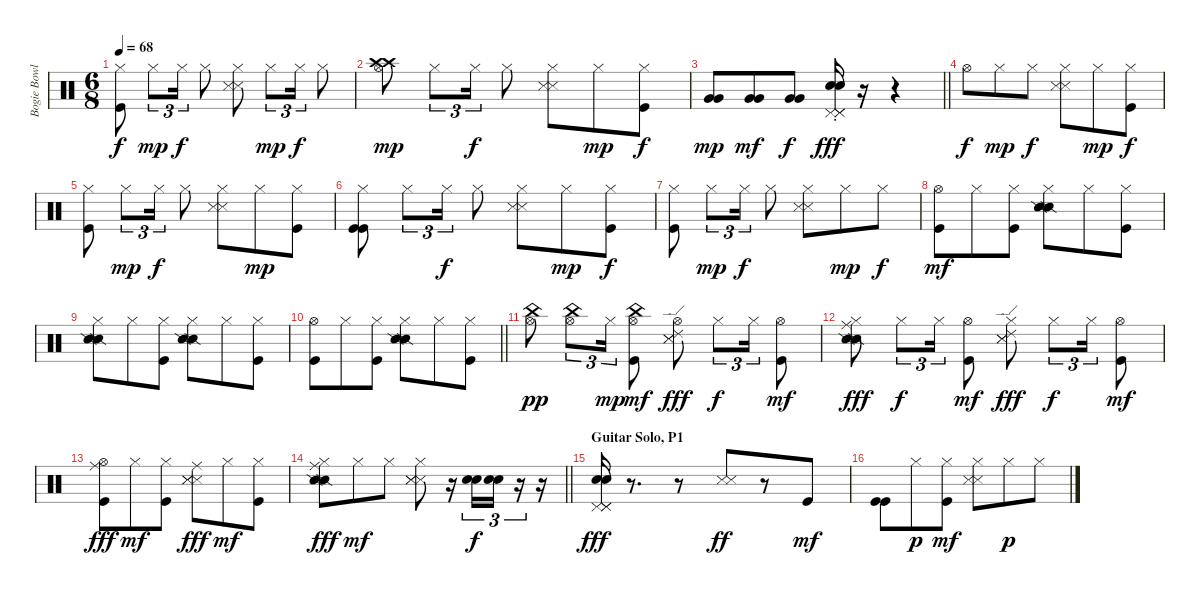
\track ("Bogie Bowles" "Bogie Bowl") {instrument percussion}
\staff {score}
\articulation defaults
\ts (6 8)
\tempo 68
\clef neutral
\ks c
("Hi-Hat (closed)" "Kick (hit)").8{dy f} "Hi-Hat (closed)".8{tu (3 2) dy mp} "Hi-Hat (closed)".16{tu (3 2) dy f} "Hi-Hat (closed)".8 ("Hi-Hat (closed)" "Snare (side stick) 3" "Snare (side stick) 3").8 "Hi-Hat (closed)".8{tu (3 2) dy mp} "Hi-Hat (closed)".16{tu (3 2) dy f} "Hi-Hat (closed)".8 |
("Hi-Hat (open)" "Crash high (hit)" "Crash high (hit)").8{dy mp} "Hi-Hat (closed)".8{tu (3 2)} "Hi-Hat (closed)".16{tu (3 2) dy f} "Hi-Hat (closed)".8 ("Hi-Hat (closed)" "Snare (side stick) 3" "Snare (side stick) 3").8 "Hi-Hat (closed)".8{dy mp} ("Hi-Hat (closed)" "Kick (hit)").8{dy f} |
\barLineRight lightlight
("Very Low Tom (hit)" "Very Low Tom (hit)").8{dy mp} ("Very Low Tom (hit)" "Very Low Tom (hit)").8{dy mf} ("Very Low Tom (hit)" "Very Low Tom (hit)").8{dy f} ("Pedal Hi-Hat (hit)"{st} "Pedal Hi-Hat (hit)"{st} "Pedal Hi-Hat (hit)"{st} "Snare (hit) 2"{st} "Snare (hit) 2"{st}).16{dy fff} r.16 r.4 |
"Hi-Hat (open)".8{dy f} "Hi-Hat (closed)".8{dy mp} "Hi-Hat (closed)".8{dy f} ("Hi-Hat (closed)" "Snare (side stick) 3" "Snare (side stick) 3").8 "Hi-Hat (closed)".8{dy mp} ("Hi-Hat (closed)" "Kick (hit)").8{dy f} |
("Hi-Hat (closed)" "Kick (hit)").8 "Hi-Hat (closed)".8{tu (3 2) dy mp} "Hi-Hat (closed)".16{tu (3 2) dy f} "Hi-Hat (closed)".8 ("Hi-Hat (closed)" "Snare (side stick) 3" "Snare (side stick) 3").8 "Hi-Hat (closed)".8{dy mp} ("Hi-Hat (closed)" "Kick (hit)").8 |
("Hi-Hat (closed)" "Kick (hit)" "Kick (hit)").8 "Hi-Hat (closed)".8{tu (3 2)} "Hi-Hat (closed)".16{tu (3 2) dy f} "Hi-Hat (closed)".8 ("Hi-Hat (closed)" "Snare (side stick) 3" "Snare (side stick) 3").8 "Hi-Hat (closed)".8{dy mp} ("Hi-Hat (closed)" "Kick (hit)").8{dy f} |
("Hi-Hat (closed)" "Kick (hit)").8 "Hi-Hat (closed)".8{tu (3 2) dy mp} "Hi-Hat (closed)".16{tu (3 2) dy f} "Hi-Hat (closed)".8 ("Hi-Hat (closed)" "Snare (side stick) 3" "Snare (side stick) 3").8 "Hi-Hat (closed)".8{dy mp} "Hi-Hat (closed)".8{dy f} |
("Hi-Hat (open)" "Kick (hit)").8{dy mf} "Hi-Hat (closed)".8 ("Hi-Hat (closed)" "Kick (hit)").8 ("Hi-Hat (closed)" "Snare (side stick) 2" "Snare (side stick) 2").8 "Hi-Hat (closed)".8 ("Hi-Hat (closed)" "Kick (hit)").8 |
("Hi-Hat (closed)" "Snare (side stick) 2" "Snare (side stick) 2").8 "Hi-Hat (closed)".8 ("Hi-Hat (closed)" "Kick (hit)").8 ("Hi-Hat (closed)" "Snare (side stick) 2" "Snare (side stick) 2").8 "Hi-Hat (closed)".8 ("Hi-Hat (closed)" "Kick (hit)").8 |
\barLineRight lightlight
("Hi-Hat (open)" "Kick (hit)").8 "Hi-Hat (closed)".8 ("Hi-Hat (closed)" "Kick (hit)").8 ("Hi-Hat (closed)" "Snare (side stick) 2" "Snare (side stick) 2").8 "Hi-Hat (closed)".8 ("Hi-Hat (closed)" "Kick (hit)").8 |
("Hi-Hat (open)" "China (hit)").8{dy pp} ("Hi-Hat (open)" "China (hit)").8{tu (3 2)} "Hi-Hat (closed)".16{tu (3 2) dy mp} ("Hi-Hat (open)" "China (hit)" "Kick (hit)").8{dy mf} ("Hi-Hat (open)" "Snare (side stick) 3" "Snare (side stick) 3" "Ride (edge) 2").8{dy fff} "Hi-Hat (closed)".8{tu (3 2) dy f} "Hi-Hat (closed)".16{tu (3 2)} ("Hi-Hat (open)" "Kick (hit)").8{dy mf} |
("Hi-Hat (closed)" "Snare (side stick) 2" "Snare (side stick) 2" "Ride (middle)").8{dy fff} "Hi-Hat (closed)".8{tu (3 2) dy f} "Hi-Hat (closed)".16{tu (3 2)} ("Hi-Hat (open)" "Kick (hit)").8{dy mf} ("Hi-Hat (closed)" "Snare (side stick) 3" "Snare (side stick) 3" "Ride (edge) 2").8{dy fff} "Hi-Hat (closed)".8{tu (3 2) dy f} "Hi-Hat (closed)".16{tu (3 2)} ("Hi-Hat (open)" "Kick (hit)").8{dy mf} |
("Hi-Hat (open)" "Kick (hit)" "Ride (middle)").8{dy fff} "Hi-Hat (closed)".8{dy mf} ("Hi-Hat (closed)" "Kick (hit)").8 ("Ride (middle)" "Snare (side stick) 3" "Snare (side stick) 3" "Snare (side stick) 3").8{dy fff} "Hi-Hat (closed)".8{dy mf} ("Hi-Hat (closed)" "Kick (hit)").8 |
\barLineRight lightlight
("Hi-Hat (closed)" "Snare (side stick) 2" "Snare (side stick) 2" "Ride (middle)").8{dy fff} "Hi-Hat (closed)".8{dy mf} "Hi-Hat (closed)".8 ("Hi-Hat (closed)" "Snare (side stick) 3" "Snare (side stick) 3" "Snare (side stick) 3").8 r.16 ("Snare (hit) 2" "Snare (hit) 2").16{tu (3 2) dy f} ("Snare (hit) 2" "Snare (hit) 2").16{tu (3 2)} r.16{tu (3 2)} r.16 |
\section ("" "Guitar Solo, P1")
("Pedal Hi-Hat (hit)" "Pedal Hi-Hat (hit)" "Pedal Hi-Hat (hit)" "Snare (hit) 2" "Snare (hit) 2").16{dy fff} r.8{d} r.8 ("Snare (side stick) 3" "Snare (side stick) 3").8{dy ff} r.8 "Kick (hit)".8{dy mf} |
("Kick (hit)" "Kick (hit)").8 "Hi-Hat (closed)".8{dy p} ("Hi-Hat (closed)" "Kick (hit)").8{dy mf} ("Hi-Hat (closed)" "Snare (side stick) 3" "Snare (side stick) 3").8 "Hi-Hat (closed)".8{dy p} "Hi-Hat (closed)".8
